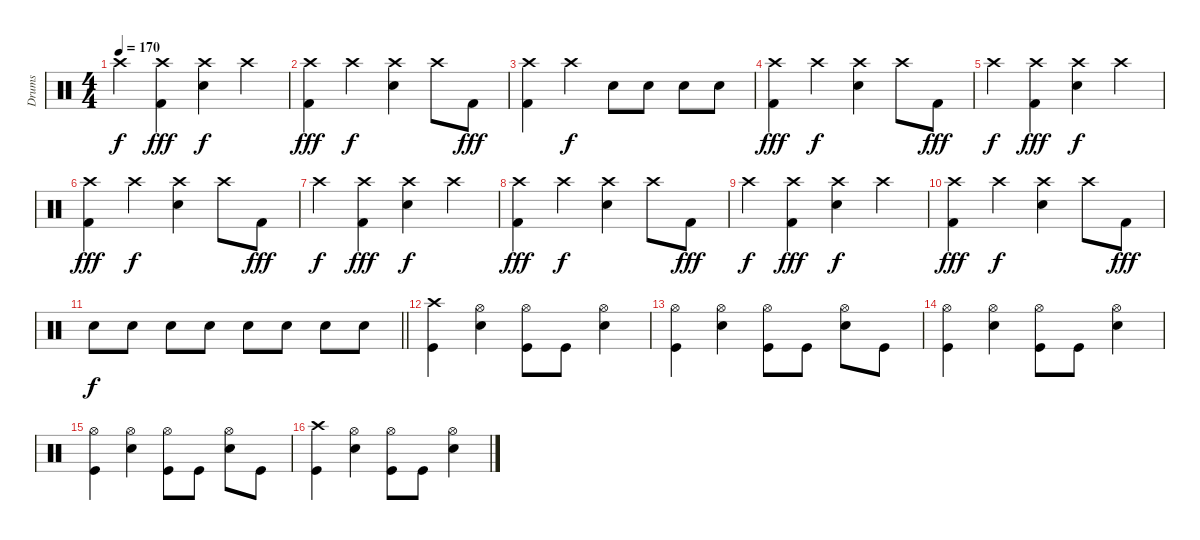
\track ("Drums" "Drums") {instrument percussion}
\staff {score}
\articulation defaults
\ts (4 4)
\tempo 170
\clef neutral
\ks c "Crash high (hit)".4{dy f}
("Crash high (hit)" "Kick (hit) 2").4{dy fff} ("Crash high (hit)" "Electric Snare (hit)").4{dy f} "Crash high (hit)".4 |
("Crash high (hit)" "Kick (hit) 2").4{dy fff} "Crash high (hit)".4{dy f} ("Crash high (hit)" "Electric Snare (hit)").4 "Crash high (hit)".8 "Kick (hit) 2".8{dy fff} |
("Crash high (hit)" "Kick (hit) 2").4 "Crash high (hit)".4{dy f} "Electric Snare (hit)".8 "Electric Snare (hit)".8 "Electric Snare (hit)".8 "Electric Snare (hit)".8 |
("Crash high (hit)" "Kick (hit) 2").4{dy fff} "Crash high (hit)".4{dy f} ("Crash high (hit)" "Electric Snare (hit)").4 "Crash high (hit)".8 "Kick (hit) 2".8{dy fff} |
"Crash high (hit)".4{dy f} ("Crash high (hit)" "Kick (hit) 2").4{dy fff} ("Crash high (hit)" "Electric Snare (hit)").4{dy f} "Crash high (hit)".4 |
("Crash high (hit)" "Kick (hit) 2").4{dy fff} "Crash high (hit)".4{dy f} ("Crash high (hit)" "Electric Snare (hit)").4 "Crash high (hit)".8 "Kick (hit) 2".8{dy fff} |
"Crash high (hit)".4{dy f} ("Crash high (hit)" "Kick (hit) 2").4{dy fff} ("Crash high (hit)" "Electric Snare (hit)").4{dy f} "Crash high (hit)".4 |
("Crash high (hit)" "Kick (hit) 2").4{dy fff} "Crash high (hit)".4{dy f} ("Crash high (hit)" "Electric Snare (hit)").4 "Crash high (hit)".8 "Kick (hit) 2".8{dy fff} |
"Crash high (hit)".4{dy f} ("Crash high (hit)" "Kick (hit) 2").4{dy fff} ("Crash high (hit)" "Electric Snare (hit)").4{dy f} "Crash high (hit)".4 |
("Crash high (hit)" "Kick (hit) 2").4{dy fff} "Crash high (hit)".4{dy f} ("Crash high (hit)" "Electric Snare (hit)").4 "Crash high (hit)".8 "Kick (hit) 2".8{dy fff} |
\barLineRight lightlight "Electric Snare (hit)".8{dy f} "Electric Snare (hit)".8 "Electric Snare (hit)".8 "Electric Snare (hit)".8 "Electric Snare (hit)".8 "Electric Snare (hit)".8 "Electric Snare (hit)".8 "Electric Snare (hit)".8
|
\section ("" "")
("Crash high (hit)" "Kick (hit)").4 ("Hi-Hat (open)" "Electric Snare (hit)").4 ("Hi-Hat (open)" "Kick (hit)").8 "Kick (hit)".8 ("Hi-Hat (open)" "Electric Snare (hit)").4 |
("Hi-Hat (open)" "Kick (hit)").4 ("Hi-Hat (open)" "Electric Snare (hit)").4 ("Hi-Hat (open)" "Kick (hit)").8 "Kick (hit)".8 ("Hi-Hat (open)" "Electric Snare (hit)").8 "Kick (hit)".8 |
("Hi-Hat (open)" "Kick (hit)").4 ("Hi-Hat (open)" "Electric Snare (hit)").4 ("Hi-Hat (open)" "Kick (hit)").8 "Kick (hit)".8 ("Hi-Hat (open)" "Electric Snare (hit)").4 |
("Hi-Hat (open)" "Kick (hit)").4 ("Hi-Hat (open)" "Electric Snare (hit)").4 ("Hi-Hat (open)" "Kick (hit)").8 "Kick (hit)".8 ("Hi-Hat (open)" "Electric Snare (hit)").8 "Kick (hit)".8 |
("Crash high (hit)" "Kick (hit)").4 ("Hi-Hat (open)" "Electric Snare (hit)").4 ("Hi-Hat (open)" "Kick (hit)").8 "Kick (hit)".8 ("Hi-Hat (open)" "Electric Snare (hit)").4
